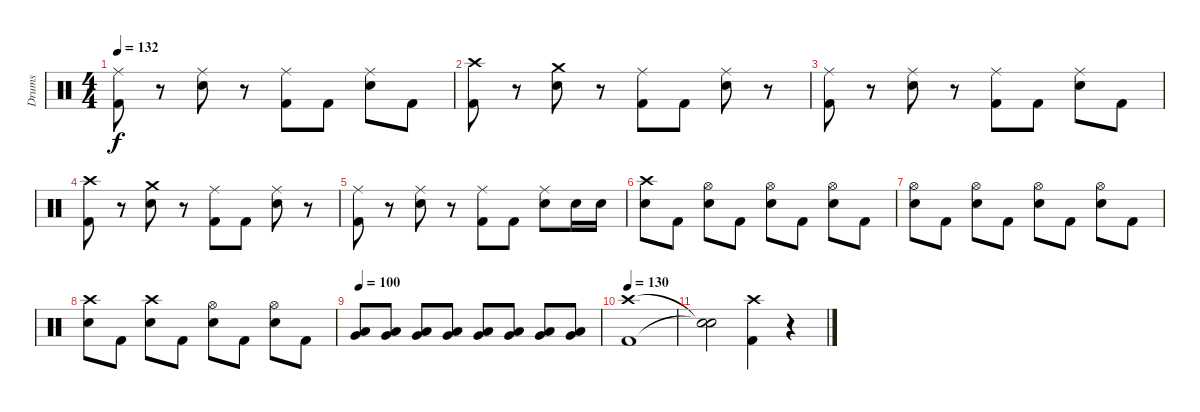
\track ("Drums" "Drums") {instrument percussion}
\staff {score}
\articulation defaults
\ts (4 4)
\tempo 132
\clef neutral
\ks c
("Ride (middle)" "Kick (hit) 2").8{dy f} r.8 ("Ride (middle)" "Electric Snare (hit)").8 r.8 ("Ride (middle)" "Kick (hit) 2").8 "Kick (hit) 2".8 ("Ride (middle)" "Electric Snare (hit)").8 "Kick (hit) 2".8 |
("Crash high (hit)" "Kick (hit) 2").8 r.8 ("Crash medium (hit)" "Electric Snare (hit)").8 r.8 ("Ride (middle)" "Kick (hit) 2").8 "Kick (hit) 2".8 ("Ride (middle)" "Electric Snare (hit)").8 r.8 |
("Ride (middle)" "Kick (hit) 2").8 r.8 ("Ride (middle)" "Electric Snare (hit)").8 r.8 ("Ride (middle)" "Kick (hit) 2").8 "Kick (hit) 2".8 ("Ride (middle)" "Electric Snare (hit)").8 "Kick (hit) 2".8 |
("Crash high (hit)" "Kick (hit) 2").8 r.8 ("Crash medium (hit)" "Electric Snare (hit)").8 r.8 ("Ride (middle)" "Kick (hit) 2").8 "Kick (hit) 2".8 ("Ride (middle)" "Electric Snare (hit)").8 r.8 |
("Ride (middle)" "Kick (hit) 2").8 r.8 ("Ride (middle)" "Electric Snare (hit)").8 r.8 ("Ride (middle)" "Kick (hit) 2").8 "Kick (hit) 2".8 ("Ride (middle)" "Electric Snare (hit)").8 "Electric Snare (hit)".16 "Electric Snare (hit)".16 |
("Crash high (hit)" "Electric Snare (hit)").8 "Kick (hit) 2".8 ("Hi-Hat (open)" "Electric Snare (hit)").8 "Kick (hit) 2".8 ("Hi-Hat (open)" "Electric Snare (hit)").8 "Kick (hit) 2".8 ("Hi-Hat (open)" "Electric Snare (hit)").8 "Kick (hit) 2".8 |
("Hi-Hat (open)" "Electric Snare (hit)").8 "Kick (hit) 2".8 ("Hi-Hat (open)" "Electric Snare (hit)").8 "Kick (hit) 2".8 ("Hi-Hat (open)" "Electric Snare (hit)").8 "Kick (hit) 2".8 ("Hi-Hat (open)" "Electric Snare (hit)").8 "Kick (hit) 2".8 |
("Crash high (hit)" "Electric Snare (hit)").8 "Kick (hit) 2".8 ("Crash high (hit)" "Electric Snare (hit)").8 "Kick (hit) 2".8 ("Hi-Hat (open)" "Electric Snare (hit)").8 "Kick (hit) 2".8 ("Hi-Hat (open)" "Electric Snare (hit)").8 "Kick (hit) 2".8 |
\tempo 100
("Very Low Tom (hit)" "Low Tom (hit)").8 ("Very Low Tom (hit)" "Low Tom (hit)").8 ("Very Low Tom (hit)" "Low Tom (hit)").8 ("Very Low Tom (hit)" "Low Tom (hit)").8 ("Very Low Tom (hit)" "Low Tom (hit)").8 ("Very Low Tom (hit)" "Low Tom (hit)").8 ("Very Low Tom (hit)" "Low Tom (hit)").8 ("Very Low Tom (hit)" "Low Tom (hit)").8 |
\tempo 130
("Crash high (hit)" "Kick (hit) 2").1 |
("Snare (hit)"{t} "Snare (hit)"{t}).2 ("Crash high (hit)" "Kick (hit) 2").4 r.4
